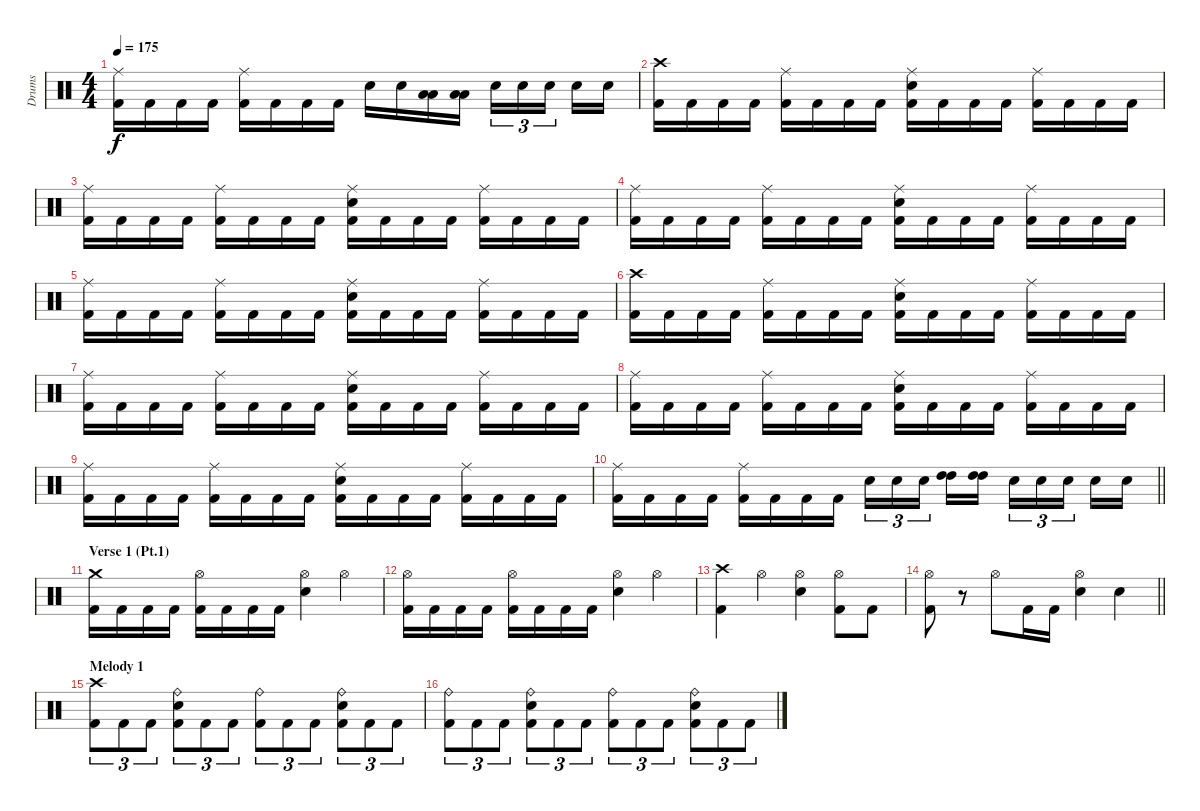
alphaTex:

\track ("Drums" "Drums") {instrument percussion}
\staff {score}
\articulation defaults
\ts (4 4)
\tempo 175
\clef neutral
\ks c
("Ride (middle)" "Kick (hit) 2").16{dy f} "Kick (hit) 2".16 "Kick (hit) 2".16 "Kick (hit) 2".16 ("Ride (middle)" "Kick (hit) 2").16 "Kick (hit) 2".16 "Kick (hit) 2".16 "Kick (hit) 2".16 "Electric Snare (hit)".16 "Electric Snare (hit)".16 ("Low Tom (hit)" "Low Tom (hit)").16 ("Low Tom (hit)" "Low Tom (hit)").16 "Electric Snare (hit)".16{tu (3 2)} "Electric Snare (hit)".16{tu (3 2)} "Electric Snare (hit)".16{tu (3 2) beam splitsecondary} "Electric Snare (hit)".16 "Electric Snare (hit)".16 |
("Crash high (hit)" "Kick (hit) 2").16 "Kick (hit) 2".16 "Kick (hit) 2".16 "Kick (hit) 2".16 ("Ride (middle)" "Kick (hit) 2").16 "Kick (hit) 2".16 "Kick (hit) 2".16 "Kick (hit) 2".16 ("Ride (middle)" "Electric Snare (hit)" "Kick (hit) 2").16 "Kick (hit) 2".16 "Kick (hit) 2".16 "Kick (hit) 2".16 ("Ride (middle)" "Kick (hit) 2").16 "Kick (hit) 2".16 "Kick (hit) 2".16 "Kick (hit) 2".16 |
("Ride (middle)" "Kick (hit) 2").16 "Kick (hit) 2".16 "Kick (hit) 2".16 "Kick (hit) 2".16 ("Ride (middle)" "Kick (hit) 2").16 "Kick (hit) 2".16 "Kick (hit) 2".16 "Kick (hit) 2".16 ("Ride (middle)" "Electric Snare (hit)" "Kick (hit) 2").16 "Kick (hit) 2".16 "Kick (hit) 2".16 "Kick (hit) 2".16 ("Ride (middle)" "Kick (hit) 2").16 "Kick (hit) 2".16 "Kick (hit) 2".16 "Kick (hit) 2".16 |
("Ride (middle)" "Kick (hit) 2").16 "Kick (hit) 2".16 "Kick (hit) 2".16 "Kick (hit) 2".16 ("Ride (middle)" "Kick (hit) 2").16 "Kick (hit) 2".16 "Kick (hit) 2".16 "Kick (hit) 2".16 ("Ride (middle)" "Electric Snare (hit)" "Kick (hit) 2").16 "Kick (hit) 2".16 "Kick (hit) 2".16 "Kick (hit) 2".16 ("Ride (middle)" "Kick (hit) 2").16 "Kick (hit) 2".16 "Kick (hit) 2".16 "Kick (hit) 2".16 |
("Ride (middle)" "Kick (hit) 2").16 "Kick (hit) 2".16 "Kick (hit) 2".16 "Kick (hit) 2".16 ("Ride (middle)" "Kick (hit) 2").16 "Kick (hit) 2".16 "Kick (hit) 2".16 "Kick (hit) 2".16 ("Ride (middle)" "Electric Snare (hit)" "Kick (hit) 2").16 "Kick (hit) 2".16 "Kick (hit) 2".16 "Kick (hit) 2".16 ("Ride (middle)" "Kick (hit) 2").16 "Kick (hit) 2".16 "Kick (hit) 2".16 "Kick (hit) 2".16 |
("Crash high (hit)" "Kick (hit) 2").16 "Kick (hit) 2".16 "Kick (hit) 2".16 "Kick (hit) 2".16 ("Ride (middle)" "Kick (hit) 2").16 "Kick (hit) 2".16 "Kick (hit) 2".16 "Kick (hit) 2".16 ("Ride (middle)" "Electric Snare (hit)" "Kick (hit) 2").16 "Kick (hit) 2".16 "Kick (hit) 2".16 "Kick (hit) 2".16 ("Ride (middle)" "Kick (hit) 2").16 "Kick (hit) 2".16 "Kick (hit) 2".16 "Kick (hit) 2".16 |
("Ride (middle)" "Kick (hit) 2").16 "Kick (hit) 2".16 "Kick (hit) 2".16 "Kick (hit) 2".16 ("Ride (middle)" "Kick (hit) 2").16 "Kick (hit) 2".16 "Kick (hit) 2".16 "Kick (hit) 2".16 ("Ride (middle)" "Electric Snare (hit)" "Kick (hit) 2").16 "Kick (hit) 2".16 "Kick (hit) 2".16 "Kick (hit) 2".16 ("Ride (middle)" "Kick (hit) 2").16 "Kick (hit) 2".16 "Kick (hit) 2".16 "Kick (hit) 2".16 |
("Ride (middle)" "Kick (hit) 2").16 "Kick (hit) 2".16 "Kick (hit) 2".16 "Kick (hit) 2".16 ("Ride (middle)" "Kick (hit) 2").16 "Kick (hit) 2".16 "Kick (hit) 2".16 "Kick (hit) 2".16 ("Ride (middle)" "Electric Snare (hit)" "Kick (hit) 2").16 "Kick (hit) 2".16 "Kick (hit) 2".16 "Kick (hit) 2".16 ("Ride (middle)" "Kick (hit) 2").16 "Kick (hit) 2".16 "Kick (hit) 2".16 "Kick (hit) 2".16 |
("Ride (middle)" "Kick (hit) 2").16 "Kick (hit) 2".16 "Kick (hit) 2".16 "Kick (hit) 2".16 ("Ride (middle)" "Kick (hit) 2").16 "Kick (hit) 2".16 "Kick (hit) 2".16 "Kick (hit) 2".16 ("Ride (middle)" "Electric Snare (hit)" "Kick (hit) 2").16 "Kick (hit) 2".16 "Kick (hit) 2".16 "Kick (hit) 2".16 ("Ride (middle)" "Kick (hit) 2").16 "Kick (hit) 2".16 "Kick (hit) 2".16 "Kick (hit) 2".16 |
\barLineRight lightlight
("Ride (middle)" "Kick (hit) 2").16 "Kick (hit) 2".16 "Kick (hit) 2".16 "Kick (hit) 2".16 ("Ride (middle)" "Kick (hit) 2").16 "Kick (hit) 2".16 "Kick (hit) 2".16 "Kick (hit) 2".16 "Electric Snare (hit)".16{tu (3 2)} "Electric Snare (hit)".16{tu (3 2)} "Electric Snare (hit)".16{tu (3 2) beam splitsecondary} ("High Tom (hit)" "High Tom (hit)").16 ("High Tom (hit)" "High Tom (hit)").16 "Electric Snare (hit)".16{tu (3 2)} "Electric Snare (hit)".16{tu (3 2)} "Electric Snare (hit)".16{tu (3 2) beam splitsecondary} "Electric Snare (hit)".16 "Electric Snare (hit)".16 |
\section ("" "Verse 1 (Pt.1)")
("Crash medium (hit)" "Kick (hit) 2").16 "Kick (hit) 2".16 "Kick (hit) 2".16 "Kick (hit) 2".16 ("Hi-Hat (open)" "Kick (hit) 2").16 "Kick (hit) 2".16 "Kick (hit) 2".16 "Kick (hit) 2".16 ("Hi-Hat (open)" "Electric Snare (hit)").4 "Hi-Hat (open)".4 |
("Hi-Hat (open)" "Kick (hit) 2").16 "Kick (hit) 2".16 "Kick (hit) 2".16 "Kick (hit) 2".16 ("Hi-Hat (open)" "Kick (hit) 2").16 "Kick (hit) 2".16 "Kick (hit) 2".16 "Kick (hit) 2".16 ("Hi-Hat (open)" "Electric Snare (hit)").4 "Hi-Hat (open)".4 |
("Crash high (hit)" "Kick (hit) 2").4 "Hi-Hat (open)".4 ("Hi-Hat (open)" "Electric Snare (hit)").4 ("Hi-Hat (open)" "Kick (hit) 2").8 "Kick (hit) 2".8 |
\barLineRight lightlight
("Hi-Hat (open)" "Kick (hit) 2").8 r.8 "Hi-Hat (open)".8 "Kick (hit) 2".16 "Kick (hit) 2".16 ("Hi-Hat (open)" "Electric Snare (hit)").4 "Electric Snare (hit)".4 |
\section ("" "Melody 1")
("Crash high (hit)" "Kick (hit) 2").8{tu (3 2)} "Kick (hit) 2".8{tu (3 2)} "Kick (hit) 2".8{tu (3 2)} ("Ride (bell)" "Electric Snare (hit)" "Kick (hit) 2").8{tu (3 2)} "Kick (hit) 2".8{tu (3 2)} "Kick (hit) 2".8{tu (3 2)} ("Ride (bell)" "Kick (hit) 2").8{tu (3 2)} "Kick (hit) 2".8{tu (3 2)} "Kick (hit) 2".8{tu (3 2)} ("Ride (bell)" "Electric Snare (hit)" "Kick (hit) 2").8{tu (3 2)} "Kick (hit) 2".8{tu (3 2)} "Kick (hit) 2".8{tu (3 2)} |
("Ride (bell)" "Kick (hit) 2").8{tu (3 2)} "Kick (hit) 2".8{tu (3 2)} "Kick (hit) 2".8{tu (3 2)} ("Ride (bell)" "Electric Snare (hit)" "Kick (hit) 2").8{tu (3 2)} "Kick (hit) 2".8{tu (3 2)} "Kick (hit) 2".8{tu (3 2)} ("Ride (bell)" "Kick (hit) 2").8{tu (3 2)} "Kick (hit) 2".8{tu (3 2)} "Kick (hit) 2".8{tu (3 2)} ("Ride (bell)" "Electric Snare (hit)" "Kick (hit) 2").8{tu (3 2)} "Kick (hit) 2".8{tu (3 2)} "Kick (hit) 2".8{tu (3 2)}
